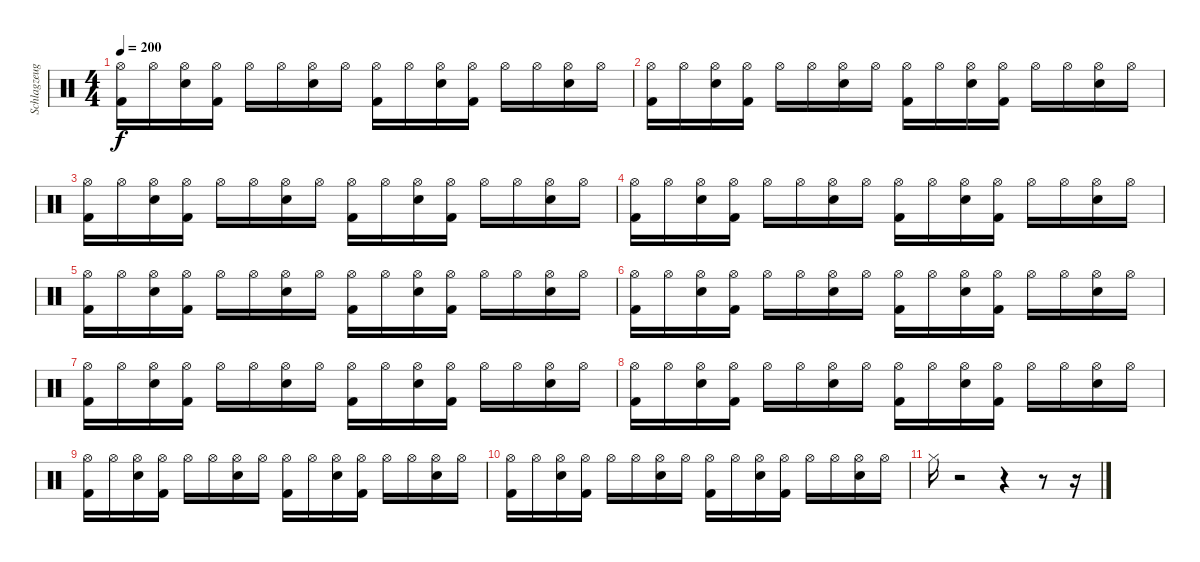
\track ("Schlagzeug - Bela B." "Schlagzeug") {instrument percussion}
\staff {score}
\articulation defaults
\ts (4 4)
\tempo 200
\clef neutral
\ks c
("Kick (hit) 2" "Hi-Hat (open)").16{dy f} "Hi-Hat (open)".16{volume 10} ("Electric Snare (hit)" "Hi-Hat (open)").16 ("Hi-Hat (open)" "Kick (hit) 2").16{volume 10} "Hi-Hat (open)".16 "Hi-Hat (open)".16{volume 10} ("Electric Snare (hit)" "Hi-Hat (open)").16 "Hi-Hat (open)".16{volume 10} ("Kick (hit) 2" "Hi-Hat (open)").16 "Hi-Hat (open)".16{volume 10} ("Electric Snare (hit)" "Hi-Hat (open)").16 ("Hi-Hat (open)" "Kick (hit) 2").16{volume 10} "Hi-Hat (open)".16 "Hi-Hat (open)".16{volume 10} ("Electric Snare (hit)" "Hi-Hat (open)").16 "Hi-Hat (open)".16{volume 10} |
("Kick (hit) 2" "Hi-Hat (open)").16 "Hi-Hat (open)".16{volume 9} ("Electric Snare (hit)" "Hi-Hat (open)").16 ("Hi-Hat (open)" "Kick (hit) 2").16{volume 9} "Hi-Hat (open)".16 "Hi-Hat (open)".16{volume 9} ("Electric Snare (hit)" "Hi-Hat (open)").16{volume 9} "Hi-Hat (open)".16 ("Kick (hit) 2" "Hi-Hat (open)").16{volume 9} "Hi-Hat (open)".16 ("Electric Snare (hit)" "Hi-Hat (open)").16{volume 9} ("Hi-Hat (open)" "Kick (hit) 2").16 "Hi-Hat (open)".16{volume 9} "Hi-Hat (open)".16 ("Electric Snare (hit)" "Hi-Hat (open)").16{volume 8} "Hi-Hat (open)".16 |
("Kick (hit) 2" "Hi-Hat (open)").16{volume 8} "Hi-Hat (open)".16 ("Electric Snare (hit)" "Hi-Hat (open)").16{volume 8} ("Hi-Hat (open)" "Kick (hit) 2").16 "Hi-Hat (open)".16{volume 8} "Hi-Hat (open)".16 ("Electric Snare (hit)" "Hi-Hat (open)").16{volume 8} "Hi-Hat (open)".16 ("Kick (hit) 2" "Hi-Hat (open)").16{volume 8} "Hi-Hat (open)".16 ("Electric Snare (hit)" "Hi-Hat (open)").16{volume 8} ("Hi-Hat (open)" "Kick (hit) 2").16 "Hi-Hat (open)".16{volume 8} "Hi-Hat (open)".16 ("Electric Snare (hit)" "Hi-Hat (open)").16{volume 8} "Hi-Hat (open)".16 |
("Kick (hit) 2" "Hi-Hat (open)").16{volume 7} "Hi-Hat (open)".16 ("Electric Snare (hit)" "Hi-Hat (open)").16{volume 7} ("Hi-Hat (open)" "Kick (hit) 2").16{volume 7} "Hi-Hat (open)".16 "Hi-Hat (open)".16{volume 7} ("Electric Snare (hit)" "Hi-Hat (open)").16 "Hi-Hat (open)".16{volume 7} ("Kick (hit) 2" "Hi-Hat (open)").16 "Hi-Hat (open)".16{volume 7} ("Electric Snare (hit)" "Hi-Hat (open)").16 ("Hi-Hat (open)" "Kick (hit) 2").16{volume 7} "Hi-Hat (open)".16 "Hi-Hat (open)".16{volume 6} ("Electric Snare (hit)" "Hi-Hat (open)").16 "Hi-Hat (open)".16{volume 6} |
("Kick (hit) 2" "Hi-Hat (open)").16 "Hi-Hat (open)".16{volume 6} ("Electric Snare (hit)" "Hi-Hat (open)").16 ("Hi-Hat (open)" "Kick (hit) 2").16{volume 6} "Hi-Hat (open)".16 "Hi-Hat (open)".16{volume 6} ("Electric Snare (hit)" "Hi-Hat (open)").16 "Hi-Hat (open)".16{volume 6} ("Kick (hit) 2" "Hi-Hat (open)").16 "Hi-Hat (open)".16{volume 6} ("Electric Snare (hit)" "Hi-Hat (open)").16 ("Hi-Hat (open)" "Kick (hit) 2").16{volume 6} "Hi-Hat (open)".16 "Hi-Hat (open)".16{volume 6} ("Electric Snare (hit)" "Hi-Hat (open)").16{volume 5} "Hi-Hat (open)".16 |
("Kick (hit) 2" "Hi-Hat (open)").16{volume 5} "Hi-Hat (open)".16 ("Electric Snare (hit)" "Hi-Hat (open)").16{volume 5} ("Hi-Hat (open)" "Kick (hit) 2").16 "Hi-Hat (open)".16{volume 5} "Hi-Hat (open)".16 ("Electric Snare (hit)" "Hi-Hat (open)").16{volume 5} "Hi-Hat (open)".16 ("Kick (hit) 2" "Hi-Hat (open)").16{volume 5} "Hi-Hat (open)".16 ("Electric Snare (hit)" "Hi-Hat (open)").16{volume 5} ("Hi-Hat (open)" "Kick (hit) 2").16 "Hi-Hat (open)".16{volume 4} "Hi-Hat (open)".16 ("Electric Snare (hit)" "Hi-Hat (open)").16{volume 4} "Hi-Hat (open)".16 |
("Kick (hit) 2" "Hi-Hat (open)").16{volume 4} "Hi-Hat (open)".16 ("Electric Snare (hit)" "Hi-Hat (open)").16{volume 4} ("Hi-Hat (open)" "Kick (hit) 2").16 "Hi-Hat (open)".16{volume 4} "Hi-Hat (open)".16 ("Electric Snare (hit)" "Hi-Hat (open)").16{volume 4} "Hi-Hat (open)".16 ("Kick (hit) 2" "Hi-Hat (open)").16{volume 4} "Hi-Hat (open)".16{volume 4} ("Electric Snare (hit)" "Hi-Hat (open)").16 ("Hi-Hat (open)" "Kick (hit) 2").16{volume 4} "Hi-Hat (open)".16 "Hi-Hat (open)".16{volume 3} ("Electric Snare (hit)" "Hi-Hat (open)").16 "Hi-Hat (open)".16{volume 3} |
("Kick (hit) 2" "Hi-Hat (open)").16 "Hi-Hat (open)".16{volume 3} ("Electric Snare (hit)" "Hi-Hat (open)").16 ("Hi-Hat (open)" "Kick (hit) 2").16{volume 3} "Hi-Hat (open)".16 "Hi-Hat (open)".16{volume 3} ("Electric Snare (hit)" "Hi-Hat (open)").16 "Hi-Hat (open)".16{volume 3} ("Kick (hit) 2" "Hi-Hat (open)").16 "Hi-Hat (open)".16{volume 3} ("Electric Snare (hit)" "Hi-Hat (open)").16 ("Hi-Hat (open)" "Kick (hit) 2").16{volume 2} "Hi-Hat (open)".16 "Hi-Hat (open)".16{volume 2} ("Electric Snare (hit)" "Hi-Hat (open)").16 "Hi-Hat (open)".16{volume 2} |
("Kick (hit) 2" "Hi-Hat (open)").16 "Hi-Hat (open)".16{volume 2} ("Electric Snare (hit)" "Hi-Hat (open)").16 ("Hi-Hat (open)" "Kick (hit) 2").16{volume 2} "Hi-Hat (open)".16{volume 2} "Hi-Hat (open)".16 ("Electric Snare (hit)" "Hi-Hat (open)").16{volume 2} "Hi-Hat (open)".16 ("Kick (hit) 2" "Hi-Hat (open)").16{volume 2} "Hi-Hat (open)".16 ("Electric Snare (hit)" "Hi-Hat (open)").16{volume 2} ("Hi-Hat (open)" "Kick (hit) 2").16 "Hi-Hat (open)".16{volume 1} "Hi-Hat (open)".16 ("Electric Snare (hit)" "Hi-Hat (open)").16{volume 1} "Hi-Hat (open)".16 |
("Kick (hit) 2" "Hi-Hat (open)").16{volume 1} "Hi-Hat (open)".16 ("Electric Snare (hit)" "Hi-Hat (open)").16{volume 1} ("Hi-Hat (open)" "Kick (hit) 2").16 "Hi-Hat (open)".16{volume 1} "Hi-Hat (open)".16 ("Electric Snare (hit)" "Hi-Hat (open)").16{volume 1} "Hi-Hat (open)".16 ("Kick (hit) 2" "Hi-Hat (open)").16{volume 1} "Hi-Hat (open)".16 ("Electric Snare (hit)" "Hi-Hat (open)").16{volume 0} ("Hi-Hat (open)" "Kick (hit) 2").16 "Hi-Hat (open)".16{volume 0} "Hi-Hat (open)".16 ("Electric Snare (hit)" "Hi-Hat (open)").16{volume 0} "Hi-Hat (open)".16{volume 0} |
"Hi-Hat (closed)".16{volume 12} r.2 r.4 r.8 r.16
